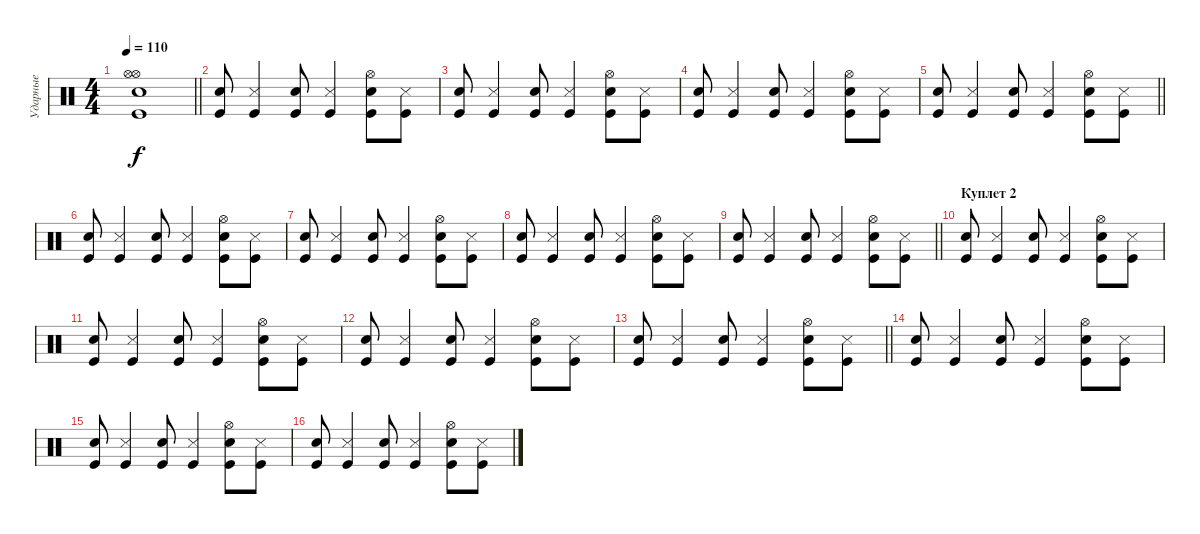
\track ("Ударные" "Ударные") {instrument percussion}
\staff {score}
\articulation defaults
\ts (4 4)
\tempo 110
\clef neutral
\barLineRight lightlight
\ks c
("Snare (hit) 2" "Kick (hit)" "Hi-Hat (open)" "Hi-Hat (open)").1{dy f} |
\section ("" "")
("Snare (hit) 2" "Kick (hit)").8 ("Kick (hit)" "Snare (side stick) 3").4 ("Kick (hit)" "Snare (hit) 2").8 ("Kick (hit)" "Snare (side stick) 3").4 ("Snare (hit) 2" "Kick (hit)" "Hi-Hat (open)").8 ("Kick (hit)" "Snare (side stick) 3").8 |
("Snare (hit) 2" "Kick (hit)").8 ("Kick (hit)" "Snare (side stick) 3").4 ("Kick (hit)" "Snare (hit) 2").8 ("Kick (hit)" "Snare (side stick) 3").4 ("Snare (hit) 2" "Kick (hit)" "Hi-Hat (open)").8 ("Kick (hit)" "Snare (side stick) 3").8 |
("Snare (hit) 2" "Kick (hit)").8 ("Kick (hit)" "Snare (side stick) 3").4 ("Kick (hit)" "Snare (hit) 2").8 ("Kick (hit)" "Snare (side stick) 3").4 ("Snare (hit) 2" "Kick (hit)" "Hi-Hat (open)").8 ("Kick (hit)" "Snare (side stick) 3").8 |
\barLineRight lightlight
("Snare (hit) 2" "Kick (hit)").8 ("Kick (hit)" "Snare (side stick) 3").4 ("Kick (hit)" "Snare (hit) 2").8 ("Kick (hit)" "Snare (side stick) 3").4 ("Snare (hit) 2" "Kick (hit)" "Hi-Hat (open)").8 ("Kick (hit)" "Snare (side stick) 3").8 |
("Snare (hit) 2" "Kick (hit)").8 ("Kick (hit)" "Snare (side stick) 3").4 ("Kick (hit)" "Snare (hit) 2").8 ("Kick (hit)" "Snare (side stick) 3").4 ("Snare (hit) 2" "Kick (hit)" "Hi-Hat (open)").8 ("Kick (hit)" "Snare (side stick) 3").8 |
("Snare (hit) 2" "Kick (hit)").8 ("Kick (hit)" "Snare (side stick) 3").4 ("Kick (hit)" "Snare (hit) 2").8 ("Kick (hit)" "Snare (side stick) 3").4 ("Snare (hit) 2" "Kick (hit)" "Hi-Hat (open)").8 ("Kick (hit)" "Snare (side stick) 3").8 |
("Snare (hit) 2" "Kick (hit)").8 ("Kick (hit)" "Snare (side stick) 3").4 ("Kick (hit)" "Snare (hit) 2").8 ("Kick (hit)" "Snare (side stick) 3").4 ("Snare (hit) 2" "Kick (hit)" "Hi-Hat (open)").8 ("Kick (hit)" "Snare (side stick) 3").8 |
\barLineRight lightlight
("Snare (hit) 2" "Kick (hit)").8 ("Kick (hit)" "Snare (side stick) 3").4 ("Kick (hit)" "Snare (hit) 2").8 ("Kick (hit)" "Snare (side stick) 3").4 ("Snare (hit) 2" "Kick (hit)" "Hi-Hat (open)").8 ("Kick (hit)" "Snare (side stick) 3").8 |
\section ("" "Куплет 2")
("Snare (hit) 2" "Kick (hit)").8 ("Kick (hit)" "Snare (side stick) 3").4 ("Kick (hit)" "Snare (hit) 2").8 ("Kick (hit)" "Snare (side stick) 3").4 ("Snare (hit) 2" "Kick (hit)" "Hi-Hat (open)").8 ("Kick (hit)" "Snare (side stick) 3").8 |
("Snare (hit) 2" "Kick (hit)").8 ("Kick (hit)" "Snare (side stick) 3").4 ("Kick (hit)" "Snare (hit) 2").8 ("Kick (hit)" "Snare (side stick) 3").4 ("Snare (hit) 2" "Kick (hit)" "Hi-Hat (open)").8 ("Kick (hit)" "Snare (side stick) 3").8 |
("Snare (hit) 2" "Kick (hit)").8 ("Kick (hit)" "Snare (side stick) 3").4 ("Kick (hit)" "Snare (hit) 2").8 ("Kick (hit)" "Snare (side stick) 3").4 ("Snare (hit) 2" "Kick (hit)" "Hi-Hat (open)").8 ("Kick (hit)" "Snare (side stick) 3").8 |
\barLineRight lightlight
("Snare (hit) 2" "Kick (hit)").8 ("Kick (hit)" "Snare (side stick) 3").4 ("Kick (hit)" "Snare (hit) 2").8 ("Kick (hit)" "Snare (side stick) 3").4 ("Snare (hit) 2" "Kick (hit)" "Hi-Hat (open)").8 ("Kick (hit)" "Snare (side stick) 3").8 |
("Snare (hit) 2" "Kick (hit)").8 ("Kick (hit)" "Snare (side stick) 3").4 ("Kick (hit)" "Snare (hit) 2").8 ("Kick (hit)" "Snare (side stick) 3").4 ("Snare (hit) 2" "Kick (hit)" "Hi-Hat (open)").8 ("Kick (hit)" "Snare (side stick) 3").8 |
("Snare (hit) 2" "Kick (hit)").8 ("Kick (hit)" "Snare (side stick) 3").4 ("Kick (hit)" "Snare (hit) 2").8 ("Kick (hit)" "Snare (side stick) 3").4 ("Snare (hit) 2" "Kick (hit)" "Hi-Hat (open)").8 ("Kick (hit)" "Snare (side stick) 3").8 |
("Snare (hit) 2" "Kick (hit)").8 ("Kick (hit)" "Snare (side stick) 3").4 ("Kick (hit)" "Snare (hit) 2").8 ("Kick (hit)" "Snare (side stick) 3").4 ("Snare (hit) 2" "Kick (hit)" "Hi-Hat (open)").8 ("Kick (hit)" "Snare (side stick) 3").8
